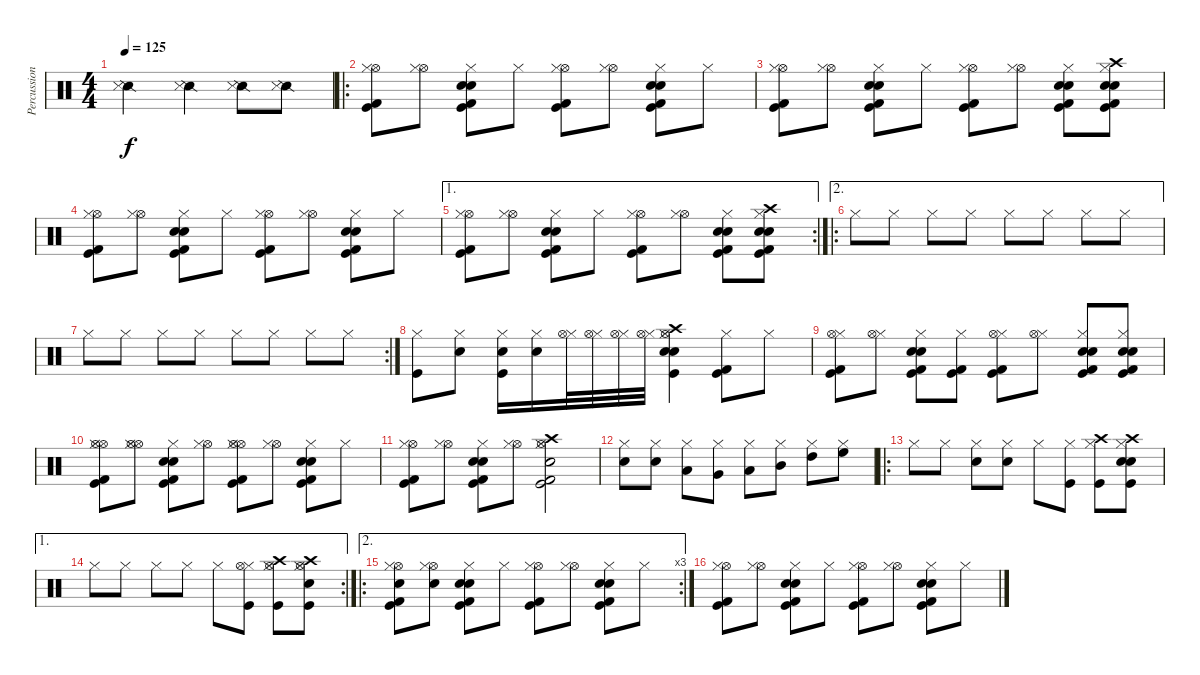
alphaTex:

\track ("Percussion" "Percussion") {instrument percussion}
\staff {score}
\articulation defaults
\ts (4 4)
\tempo 125
\clef neutral
\ks c
("Snare (side stick) 2" "Snare (side stick) 3").2{dy f} ("Snare (side stick) 2" "Snare (side stick) 3").4 ("Snare (side stick) 2" "Snare (side stick) 3").8 ("Snare (side stick) 2" "Snare (side stick) 3").8 |
\ro
("Hi-Hat (open)" "Kick (hit)" "Kick (hit) 2" "Hi-Hat (closed)").8 ("Hi-Hat (open)" "Hi-Hat (closed)").8 ("Electric Snare (hit)" "Electric Snare (hit)" "Kick (hit)" "Kick (hit) 2" "Hi-Hat (closed)").8 "Hi-Hat (closed)".8 ("Hi-Hat (open)" "Kick (hit)" "Kick (hit) 2" "Hi-Hat (closed)").8 ("Hi-Hat (open)" "Hi-Hat (closed)").8 ("Electric Snare (hit)" "Electric Snare (hit)" "Kick (hit)" "Kick (hit) 2" "Hi-Hat (closed)").8 "Hi-Hat (closed)".8 |
("Hi-Hat (open)" "Kick (hit)" "Kick (hit) 2" "Hi-Hat (closed)").8 ("Hi-Hat (open)" "Hi-Hat (closed)").8 ("Electric Snare (hit)" "Electric Snare (hit)" "Kick (hit)" "Kick (hit) 2" "Hi-Hat (closed)").8 "Hi-Hat (closed)".8 ("Hi-Hat (open)" "Kick (hit)" "Kick (hit) 2" "Hi-Hat (closed)").8 ("Hi-Hat (open)" "Hi-Hat (closed)").8 ("Electric Snare (hit)" "Electric Snare (hit)" "Kick (hit)" "Kick (hit) 2" "Hi-Hat (closed)").8 ("Crash high (hit)" "Electric Snare (hit)" "Electric Snare (hit)" "Kick (hit)" "Kick (hit) 2" "Hi-Hat (closed)").8 |
("Hi-Hat (open)" "Kick (hit)" "Kick (hit) 2" "Hi-Hat (closed)").8 ("Hi-Hat (open)" "Hi-Hat (closed)").8 ("Electric Snare (hit)" "Electric Snare (hit)" "Kick (hit)" "Kick (hit) 2" "Hi-Hat (closed)").8 "Hi-Hat (closed)".8 ("Hi-Hat (open)" "Kick (hit)" "Kick (hit) 2" "Hi-Hat (closed)").8 ("Hi-Hat (open)" "Hi-Hat (closed)").8 ("Electric Snare (hit)" "Electric Snare (hit)" "Kick (hit)" "Kick (hit) 2" "Hi-Hat (closed)").8 "Hi-Hat (closed)".8 |
\ae 1
\rc 2
("Hi-Hat (open)" "Kick (hit)" "Kick (hit) 2" "Hi-Hat (closed)").8 ("Hi-Hat (open)" "Hi-Hat (closed)").8 ("Electric Snare (hit)" "Electric Snare (hit)" "Kick (hit)" "Kick (hit) 2" "Hi-Hat (closed)").8 "Hi-Hat (closed)".8 ("Hi-Hat (open)" "Kick (hit)" "Kick (hit) 2" "Hi-Hat (closed)").8 ("Hi-Hat (open)" "Hi-Hat (closed)").8 ("Electric Snare (hit)" "Electric Snare (hit)" "Kick (hit)" "Kick (hit) 2" "Hi-Hat (closed)").8 ("Crash high (hit)" "Electric Snare (hit)" "Electric Snare (hit)" "Kick (hit)" "Kick (hit) 2" "Hi-Hat (closed)").8 |
\ae 2
\ro "Hi-Hat (closed)".8 "Hi-Hat (closed)".8 "Hi-Hat (closed)".8 "Hi-Hat (closed)".8 "Hi-Hat (closed)".8 "Hi-Hat (closed)".8 "Hi-Hat (closed)".8 "Hi-Hat (closed)".8
|
\rc 2 "Hi-Hat (closed)".8 "Hi-Hat (closed)".8 "Hi-Hat (closed)".8 "Hi-Hat (closed)".8 "Hi-Hat (closed)".8 "Hi-Hat (closed)".8 "Hi-Hat (closed)".8 "Hi-Hat (closed)".8
|
("Hi-Hat (closed)" "Kick (hit)").8 ("Hi-Hat (closed)" "Electric Snare (hit)").8 ("Hi-Hat (closed)" "Electric Snare (hit)" "Kick (hit)").16 ("Hi-Hat (closed)" "Electric Snare (hit)").16 ("Hi-Hat (closed)" "Hi-Hat (open)").32 ("Hi-Hat (closed)" "Hi-Hat (open)").32 ("Hi-Hat (closed)" "Hi-Hat (open)").32 ("Hi-Hat (closed)" "Hi-Hat (open)").32 ("Hi-Hat (closed)" "Electric Snare (hit)" "Electric Snare (hit)" "Hi-Hat (open)" "Crash high (hit)" "Kick (hit)").4 ("Hi-Hat (closed)" "Kick (hit) 2" "Kick (hit)").8 "Hi-Hat (closed)".8 |
("Hi-Hat (closed)" "Hi-Hat (open)" "Kick (hit) 2" "Kick (hit)").8 ("Hi-Hat (closed)" "Hi-Hat (open)").8 ("Hi-Hat (closed)" "Electric Snare (hit)" "Electric Snare (hit)" "Kick (hit) 2" "Kick (hit)").8 ("Hi-Hat (closed)" "Kick (hit)" "Kick (hit) 2").8 ("Hi-Hat (closed)" "Hi-Hat (open)" "Kick (hit) 2" "Kick (hit)").8 ("Hi-Hat (closed)" "Hi-Hat (open)").8 ("Hi-Hat (closed)" "Electric Snare (hit)" "Electric Snare (hit)" "Kick (hit)" "Kick (hit) 2").8 ("Hi-Hat (closed)" "Electric Snare (hit)" "Electric Snare (hit)" "Kick (hit)" "Kick (hit) 2").8 |
("Hi-Hat (open)" "Hi-Hat (open)" "Kick (hit)" "Kick (hit) 2" "Hi-Hat (closed)").8 ("Hi-Hat (open)" "Hi-Hat (open)" "Hi-Hat (closed)").8 ("Electric Snare (hit)" "Electric Snare (hit)" "Kick (hit)" "Kick (hit) 2" "Hi-Hat (closed)").8 ("Hi-Hat (open)" "Hi-Hat (closed)").8 ("Hi-Hat (open)" "Hi-Hat (open)" "Kick (hit)" "Kick (hit) 2" "Hi-Hat (closed)").8 ("Hi-Hat (open)" "Hi-Hat (closed)").8 ("Electric Snare (hit)" "Electric Snare (hit)" "Kick (hit)" "Kick (hit) 2" "Hi-Hat (closed)").8 "Hi-Hat (closed)".8 |
("Hi-Hat (open)" "Kick (hit)" "Kick (hit) 2" "Hi-Hat (closed)").8 ("Hi-Hat (open)" "Hi-Hat (closed)").8 ("Electric Snare (hit)" "Electric Snare (hit)" "Kick (hit)" "Kick (hit) 2" "Hi-Hat (closed)").8 ("Hi-Hat (open)" "Hi-Hat (closed)").8 ("Hi-Hat (open)" "Electric Snare (hit)" "Crash high (hit)" "Kick (hit)" "Kick (hit) 2" "Hi-Hat (closed)").2 |
("Hi-Hat (closed)" "Electric Snare (hit)").8 ("Hi-Hat (closed)" "Electric Snare (hit)").8 ("Hi-Hat (closed)" "Low Floor Tom (hit)").8 ("Hi-Hat (closed)" "Very Low Tom (hit)").8 ("Hi-Hat (closed)" "Low Tom (hit)").8 ("Hi-Hat (closed)" "Mid Tom (hit)").8 ("Hi-Hat (closed)" "High Tom (hit)").8 ("Hi-Hat (closed)" "High Floor Tom (hit)").8 |
\ro "Hi-Hat (closed)".8 "Hi-Hat (closed)".8
("Hi-Hat (closed)" "Electric Snare (hit)").8 ("Hi-Hat (closed)" "Electric Snare (hit)").8 "Hi-Hat (closed)".8 ("Hi-Hat (closed)" "Kick (hit)").8 ("Hi-Hat (closed)" "Crash high (hit)" "Kick (hit)").8 ("Hi-Hat (closed)" "Electric Snare (hit)" "Electric Snare (hit)" "Crash high (hit)" "Kick (hit)").8 |
\ae 1
\rc 2 "Hi-Hat (closed)".8 "Hi-Hat (closed)".8 "Hi-Hat (closed)".8 "Hi-Hat (closed)".8 "Hi-Hat (closed)".8
("Hi-Hat (closed)" "Hi-Hat (open)" "Kick (hit)").8 ("Hi-Hat (closed)" "Crash high (hit)" "Hi-Hat (open)" "Kick (hit)").8 ("Hi-Hat (closed)" "Electric Snare (hit)" "Crash high (hit)" "Hi-Hat (open)" "Kick (hit)").8 |
\ae 2
\ro
\rc 3
("Hi-Hat (open)" "Electric Snare (hit)" "Kick (hit)" "Kick (hit) 2" "Hi-Hat (closed)").8 ("Hi-Hat (open)" "Electric Snare (hit)" "Hi-Hat (closed)").8 ("Electric Snare (hit)" "Electric Snare (hit)" "Kick (hit)" "Kick (hit) 2" "Hi-Hat (closed)").8 "Hi-Hat (closed)".8 ("Hi-Hat (open)" "Kick (hit)" "Kick (hit) 2" "Hi-Hat (closed)").8 ("Hi-Hat (open)" "Hi-Hat (closed)").8 ("Electric Snare (hit)" "Electric Snare (hit)" "Kick (hit)" "Kick (hit) 2" "Hi-Hat (closed)").8 "Hi-Hat (closed)".8 |
("Hi-Hat (open)" "Kick (hit)" "Kick (hit) 2" "Hi-Hat (closed)").8 ("Hi-Hat (open)" "Hi-Hat (closed)").8 ("Electric Snare (hit)" "Electric Snare (hit)" "Kick (hit)" "Kick (hit) 2" "Hi-Hat (closed)").8 "Hi-Hat (closed)".8 ("Hi-Hat (open)" "Kick (hit)" "Kick (hit) 2" "Hi-Hat (closed)").8 ("Hi-Hat (open)" "Hi-Hat (closed)").8 ("Electric Snare (hit)" "Electric Snare (hit)" "Kick (hit)" "Kick (hit) 2" "Hi-Hat (closed)").8 "Hi-Hat (closed)".8
